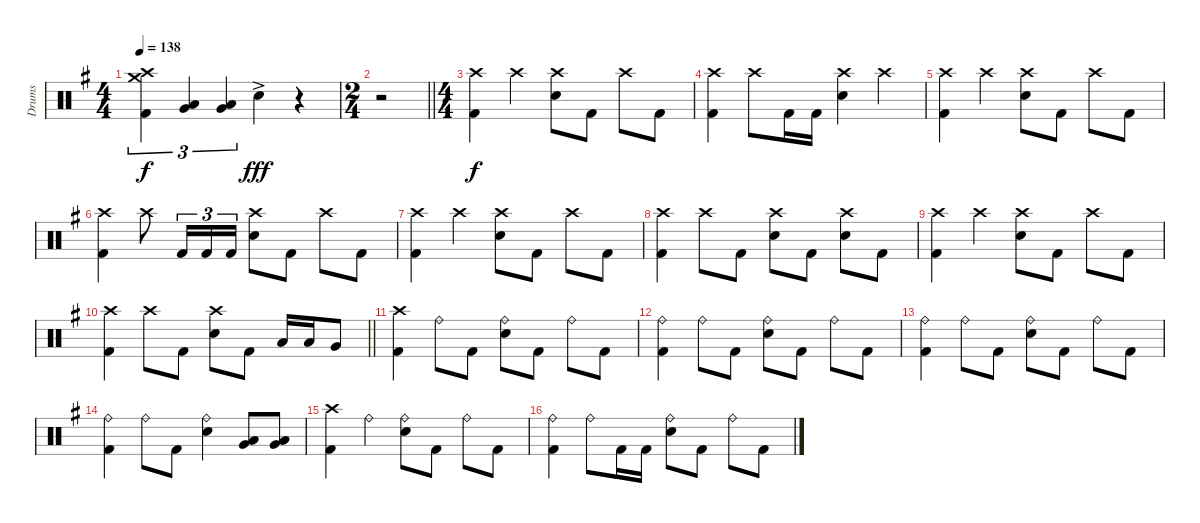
\track ("Drums" "Drums") {instrument percussion}
\staff {score}
\articulation defaults
\ts (4 4)
\tempo 138
\clef neutral
\ks eminor
("Crash high (hit)" "Crash medium (hit)" "Kick (hit) 2").4{tu (3 2) dy f} ("Low Tom (hit)" "Very Low Tom (hit)").4{tu (3 2)} ("Very Low Tom (hit)" "Low Floor Tom (hit)").4{tu (3 2)} "Snare (hit) 2"{ac}.4{dy fff} r.4 |
\ts (2 4)
\barLineRight lightlight
r.2 |
\ts (4 4)
("Crash high (hit)" "Kick (hit) 2").4{dy f} "Crash high (hit)".4 ("Crash high (hit)" "Snare (hit) 2").8 "Kick (hit) 2".8 "Crash high (hit)".8 "Kick (hit) 2".8 |
("Crash high (hit)" "Kick (hit) 2").4 "Crash high (hit)".8 "Kick (hit) 2".16 "Kick (hit) 2".16 ("Crash high (hit)" "Snare (hit) 2").4 "Crash high (hit)".4 |
("Crash high (hit)" "Kick (hit) 2").4 "Crash high (hit)".4 ("Crash high (hit)" "Snare (hit) 2").8 "Kick (hit) 2".8 "Crash high (hit)".8 "Kick (hit) 2".8 |
("Crash high (hit)" "Kick (hit) 2").4 "Crash high (hit)".8 "Kick (hit) 2".16{tu (3 2)} "Kick (hit) 2".16{tu (3 2)} "Kick (hit) 2".16{tu (3 2)} ("Crash high (hit)" "Snare (hit) 2").8 "Kick (hit) 2".8 "Crash high (hit)".8 "Kick (hit) 2".8 |
("Crash high (hit)" "Kick (hit) 2").4 "Crash high (hit)".4 ("Crash high (hit)" "Snare (hit) 2").8 "Kick (hit) 2".8 "Crash high (hit)".8 "Kick (hit) 2".8 |
("Crash high (hit)" "Kick (hit) 2").4 "Crash high (hit)".8 "Kick (hit) 2".8 ("Crash high (hit)" "Snare (hit) 2").8 "Kick (hit) 2".8 ("Crash high (hit)" "Snare (hit) 2").8 "Kick (hit) 2".8 |
("Crash high (hit)" "Kick (hit) 2").4 "Crash high (hit)".4 ("Crash high (hit)" "Snare (hit) 2").8 "Kick (hit) 2".8 "Crash high (hit)".8 "Kick (hit) 2".8 |
\barLineRight lightlight
("Crash high (hit)" "Kick (hit) 2").4 "Crash high (hit)".8 "Kick (hit) 2".8 ("Crash high (hit)" "Snare (hit) 2").8 "Kick (hit) 2".8 "Low Tom (hit)".16 "Low Tom (hit)".16 "Very Low Tom (hit)".8 |
("Crash high (hit)" "Kick (hit) 2").4 "Ride (bell)".8 "Kick (hit) 2".8 ("Ride (bell)" "Snare (hit) 2").8 "Kick (hit) 2".8 "Ride (bell)".8 "Kick (hit) 2".8 |
("Ride (bell)" "Kick (hit) 2").4 "Ride (bell)".8 "Kick (hit) 2".8 ("Ride (bell)" "Snare (hit) 2").8 "Kick (hit) 2".8 "Ride (bell)".8 "Kick (hit) 2".8 |
("Ride (bell)" "Kick (hit) 2").4 "Ride (bell)".8 "Kick (hit) 2".8 ("Ride (bell)" "Snare (hit) 2").8 "Kick (hit) 2".8 "Ride (bell)".8 "Kick (hit) 2".8 |
("Ride (bell)" "Kick (hit) 2").4 "Ride (bell)".8 "Kick (hit) 2".8 ("Ride (bell)" "Snare (hit) 2").4 ("Low Tom (hit)" "Very Low Tom (hit)").8 ("Low Tom (hit)" "Very Low Tom (hit)").8 |
("Crash high (hit)" "Kick (hit) 2").4 "Ride (bell)".4 ("Ride (bell)" "Snare (hit) 2").8 "Kick (hit) 2".8 "Ride (bell)".8 "Kick (hit) 2".8 |
("Ride (bell)" "Kick (hit) 2").4 "Ride (bell)".8 "Kick (hit) 2".16 "Kick (hit) 2".16 ("Ride (bell)" "Snare (hit) 2").8 "Kick (hit) 2".8 "Ride (bell)".8 "Kick (hit) 2".8
